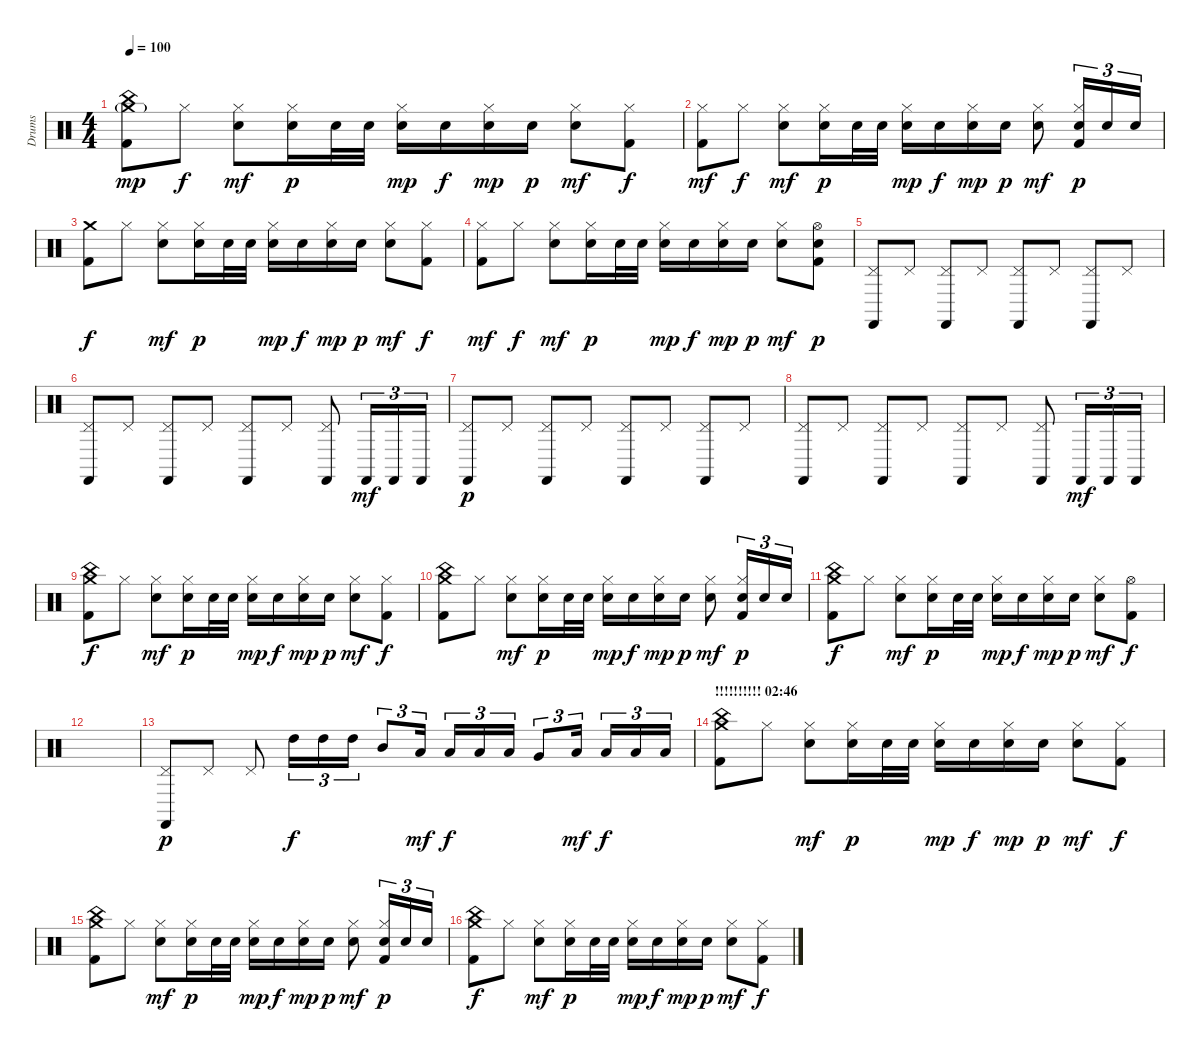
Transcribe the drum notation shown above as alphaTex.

\track ("Drums" "Drums") {instrument percussion}
\staff {score}
\articulation defaults
\ts (4 4)
\tempo 100
\clef neutral
\ks c
("China (hit)" "Crash medium (hit)"{g} "Kick (hit) 2").8{dy mp} "Hi-Hat (closed)".8{dy f} ("Hi-Hat (closed)" "Electric Snare (hit)").8{dy mf} ("Hi-Hat (closed)" "Electric Snare (hit)").16{dy p} "Electric Snare (hit)".32 "Electric Snare (hit)".32 ("Hi-Hat (closed)" "Electric Snare (hit)").16{dy mp} "Electric Snare (hit)".16{dy f} ("Hi-Hat (closed)" "Electric Snare (hit)").16{dy mp} "Electric Snare (hit)".16{dy p} ("Hi-Hat (closed)" "Electric Snare (hit)").8{dy mf} ("Hi-Hat (closed)" "Kick (hit) 2").8{dy f} |
("Hi-Hat (closed)" "Kick (hit) 2").8{dy mf} "Hi-Hat (closed)".8{dy f} ("Hi-Hat (closed)" "Electric Snare (hit)").8{dy mf} ("Hi-Hat (closed)" "Electric Snare (hit)").16{dy p} "Electric Snare (hit)".32 "Electric Snare (hit)".32 ("Hi-Hat (closed)" "Electric Snare (hit)").16{dy mp} "Electric Snare (hit)".16{dy f} ("Hi-Hat (closed)" "Electric Snare (hit)").16{dy mp} "Electric Snare (hit)".16{dy p} ("Hi-Hat (closed)" "Electric Snare (hit)").8{dy mf} ("Hi-Hat (closed)" "Electric Snare (hit)" "Kick (hit) 2").16{tu (3 2) dy p} "Electric Snare (hit)".16{tu (3 2)} "Electric Snare (hit)".16{tu (3 2)} |
("Crash medium (hit)" "Kick (hit) 2").8{dy f} "Hi-Hat (closed)".8 ("Hi-Hat (closed)" "Electric Snare (hit)").8{dy mf} ("Hi-Hat (closed)" "Electric Snare (hit)").16{dy p} "Electric Snare (hit)".32 "Electric Snare (hit)".32 ("Hi-Hat (closed)" "Electric Snare (hit)").16{dy mp} "Electric Snare (hit)".16{dy f} ("Hi-Hat (closed)" "Electric Snare (hit)").16{dy mp} "Electric Snare (hit)".16{dy p} ("Hi-Hat (closed)" "Electric Snare (hit)").8{dy mf} ("Hi-Hat (closed)" "Kick (hit) 2").8{dy f} |
("Hi-Hat (closed)" "Kick (hit) 2").8{dy mf} "Hi-Hat (closed)".8{dy f} ("Hi-Hat (closed)" "Electric Snare (hit)").8{dy mf} ("Hi-Hat (closed)" "Electric Snare (hit)").16{dy p} "Electric Snare (hit)".32 "Electric Snare (hit)".32 ("Hi-Hat (closed)" "Electric Snare (hit)").16{dy mp} "Electric Snare (hit)".16{dy f} ("Hi-Hat (closed)" "Electric Snare (hit)").16{dy mp} "Electric Snare (hit)".16{dy p} ("Hi-Hat (closed)" "Electric Snare (hit)").8{dy mf} ("Hi-Hat (open)" "Electric Snare (hit)" "Kick (hit) 2").8{dy p} |
\section ("" "")
("Castanets (hit)" "Pedal Hi-Hat (hit)").8 "Pedal Hi-Hat (hit)".8 ("Castanets (hit)" "Pedal Hi-Hat (hit)").8 "Pedal Hi-Hat (hit)".8 ("Castanets (hit)" "Pedal Hi-Hat (hit)").8 "Pedal Hi-Hat (hit)".8 ("Castanets (hit)" "Pedal Hi-Hat (hit)").8 "Pedal Hi-Hat (hit)".8 |
("Castanets (hit)" "Pedal Hi-Hat (hit)").8 "Pedal Hi-Hat (hit)".8 ("Castanets (hit)" "Pedal Hi-Hat (hit)").8 "Pedal Hi-Hat (hit)".8 ("Castanets (hit)" "Pedal Hi-Hat (hit)").8 "Pedal Hi-Hat (hit)".8 ("Castanets (hit)" "Pedal Hi-Hat (hit)").8 "Castanets (hit)".16{tu (3 2) dy mf} "Castanets (hit)".16{tu (3 2)} "Castanets (hit)".16{tu (3 2)} |
("Castanets (hit)" "Pedal Hi-Hat (hit)").8{dy p} "Pedal Hi-Hat (hit)".8 ("Castanets (hit)" "Pedal Hi-Hat (hit)").8 "Pedal Hi-Hat (hit)".8 ("Castanets (hit)" "Pedal Hi-Hat (hit)").8 "Pedal Hi-Hat (hit)".8 ("Castanets (hit)" "Pedal Hi-Hat (hit)").8 "Pedal Hi-Hat (hit)".8 |
("Castanets (hit)" "Pedal Hi-Hat (hit)").8 "Pedal Hi-Hat (hit)".8 ("Castanets (hit)" "Pedal Hi-Hat (hit)").8 "Pedal Hi-Hat (hit)".8 ("Castanets (hit)" "Pedal Hi-Hat (hit)").8 "Pedal Hi-Hat (hit)".8 ("Castanets (hit)" "Pedal Hi-Hat (hit)").8 "Castanets (hit)".16{tu (3 2) dy mf} "Castanets (hit)".16{tu (3 2)} "Castanets (hit)".16{tu (3 2)} |
("China (hit)" "Crash medium (hit)" "Kick (hit) 2").8{dy f} "Hi-Hat (closed)".8 ("Hi-Hat (closed)" "Electric Snare (hit)").8{dy mf} ("Hi-Hat (closed)" "Electric Snare (hit)").16{dy p} "Electric Snare (hit)".32 "Electric Snare (hit)".32 ("Hi-Hat (closed)" "Electric Snare (hit)").16{dy mp} "Electric Snare (hit)".16{dy f} ("Hi-Hat (closed)" "Electric Snare (hit)").16{dy mp} "Electric Snare (hit)".16{dy p} ("Hi-Hat (closed)" "Electric Snare (hit)").8{dy mf} ("Hi-Hat (closed)" "Kick (hit) 2").8{dy f} |
("China (hit)" "Crash medium (hit)" "Kick (hit) 2").8 "Hi-Hat (closed)".8 ("Hi-Hat (closed)" "Electric Snare (hit)").8{dy mf} ("Hi-Hat (closed)" "Electric Snare (hit)").16{dy p} "Electric Snare (hit)".32 "Electric Snare (hit)".32 ("Hi-Hat (closed)" "Electric Snare (hit)").16{dy mp} "Electric Snare (hit)".16{dy f} ("Hi-Hat (closed)" "Electric Snare (hit)").16{dy mp} "Electric Snare (hit)".16{dy p} ("Hi-Hat (closed)" "Electric Snare (hit)").8{dy mf} ("Hi-Hat (closed)" "Electric Snare (hit)" "Kick (hit) 2").16{tu (3 2) dy p} "Electric Snare (hit)".16{tu (3 2)} "Electric Snare (hit)".16{tu (3 2)} |
("China (hit)" "Crash medium (hit)" "Kick (hit) 2").8{dy f} "Hi-Hat (closed)".8 ("Hi-Hat (closed)" "Electric Snare (hit)").8{dy mf} ("Hi-Hat (closed)" "Electric Snare (hit)").16{dy p} "Electric Snare (hit)".32 "Electric Snare (hit)".32 ("Hi-Hat (closed)" "Electric Snare (hit)").16{dy mp} "Electric Snare (hit)".16{dy f} ("Hi-Hat (closed)" "Electric Snare (hit)").16{dy mp} "Electric Snare (hit)".16{dy p} ("Hi-Hat (closed)" "Electric Snare (hit)").8{dy mf} ("Hi-Hat (open)" "Kick (hit) 2").8{dy f} |
|
("Castanets (hit)" "Pedal Hi-Hat (hit)").8{dy p} "Pedal Hi-Hat (hit)".8 "Pedal Hi-Hat (hit)".8 "High Tom (hit)".16{tu (3 2) dy f} "High Tom (hit)".16{tu (3 2)} "High Tom (hit)".16{tu (3 2)} "Mid Tom (hit)".8{tu (3 2)} "Low Tom (hit)".16{tu (3 2) dy mf} "Low Tom (hit)".16{tu (3 2) dy f} "Low Tom (hit)".16{tu (3 2)} "Low Tom (hit)".16{tu (3 2)} "Very Low Tom (hit)".8{tu (3 2)} "Low Floor Tom (hit)".16{tu (3 2) dy mf} "Low Floor Tom (hit)".16{tu (3 2) dy f} "Low Floor Tom (hit)".16{tu (3 2)} "Low Floor Tom (hit)".16{tu (3 2)} |
\section ("" "!!!!!!!!!! 02:46")
("China (hit)" "Crash medium (hit)" "Kick (hit) 2").8 "Hi-Hat (closed)".8 ("Hi-Hat (closed)" "Electric Snare (hit)").8{dy mf} ("Hi-Hat (closed)" "Electric Snare (hit)").16{dy p} "Electric Snare (hit)".32 "Electric Snare (hit)".32 ("Hi-Hat (closed)" "Electric Snare (hit)").16{dy mp} "Electric Snare (hit)".16{dy f} ("Hi-Hat (closed)" "Electric Snare (hit)").16{dy mp} "Electric Snare (hit)".16{dy p} ("Hi-Hat (closed)" "Electric Snare (hit)").8{dy mf} ("Hi-Hat (closed)" "Kick (hit) 2").8{dy f} |
("China (hit)" "Crash medium (hit)" "Kick (hit) 2").8 "Hi-Hat (closed)".8 ("Hi-Hat (closed)" "Electric Snare (hit)").8{dy mf} ("Hi-Hat (closed)" "Electric Snare (hit)").16{dy p} "Electric Snare (hit)".32 "Electric Snare (hit)".32 ("Hi-Hat (closed)" "Electric Snare (hit)").16{dy mp} "Electric Snare (hit)".16{dy f} ("Hi-Hat (closed)" "Electric Snare (hit)").16{dy mp} "Electric Snare (hit)".16{dy p} ("Hi-Hat (closed)" "Electric Snare (hit)").8{dy mf} ("Hi-Hat (closed)" "Electric Snare (hit)" "Kick (hit) 2").16{tu (3 2) dy p} "Electric Snare (hit)".16{tu (3 2)} "Electric Snare (hit)".16{tu (3 2)} |
("China (hit)" "Crash medium (hit)" "Kick (hit) 2").8{dy f} "Hi-Hat (closed)".8 ("Hi-Hat (closed)" "Electric Snare (hit)").8{dy mf} ("Hi-Hat (closed)" "Electric Snare (hit)").16{dy p} "Electric Snare (hit)".32 "Electric Snare (hit)".32 ("Hi-Hat (closed)" "Electric Snare (hit)").16{dy mp} "Electric Snare (hit)".16{dy f} ("Hi-Hat (closed)" "Electric Snare (hit)").16{dy mp} "Electric Snare (hit)".16{dy p} ("Hi-Hat (closed)" "Electric Snare (hit)").8{dy mf} ("Hi-Hat (closed)" "Kick (hit) 2").8{dy f}
